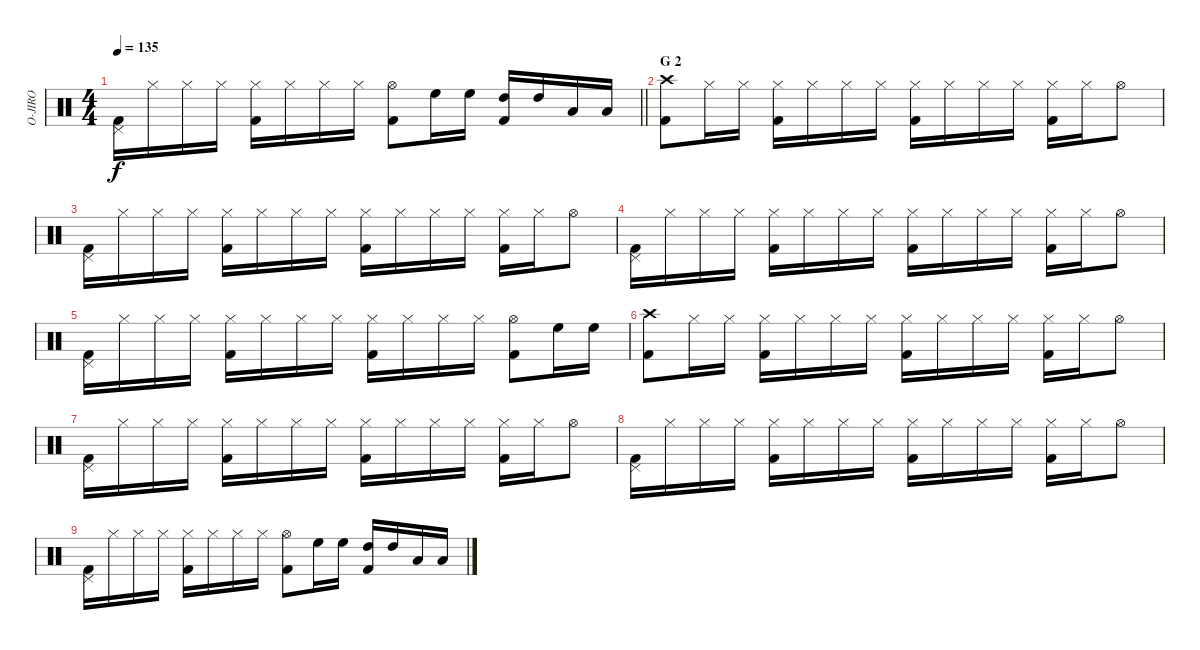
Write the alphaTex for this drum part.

\track ("O-JIRO" "O-JIRO") {instrument percussion}
\staff {score}
\articulation defaults
\ts (4 4)
\tempo 135
\clef neutral
\barLineRight lightlight
\ks c
("Pedal Hi-Hat (hit)" "Kick (hit) 2").16{dy f} "Hi-Hat (closed)".16 "Hi-Hat (closed)".16 "Hi-Hat (closed)".16 ("Hi-Hat (closed)" "Kick (hit) 2").16 "Hi-Hat (closed)".16 "Hi-Hat (closed)".16 "Hi-Hat (closed)".16 ("Hi-Hat (open)" "Kick (hit) 2").8 "High Floor Tom (hit)".16 "High Floor Tom (hit)".16 ("High Tom (hit)" "Kick (hit) 2").16 "High Tom (hit)".16 "Low Tom (hit)".16 "Low Tom (hit)".16 |
\section ("" "G 2")
("Crash high (hit)" "Kick (hit) 2").8 "Hi-Hat (closed)".16 "Hi-Hat (closed)".16 ("Hi-Hat (closed)" "Kick (hit) 2").16 "Hi-Hat (closed)".16 "Hi-Hat (closed)".16 "Hi-Hat (closed)".16 ("Hi-Hat (closed)" "Kick (hit) 2").16 "Hi-Hat (closed)".16 "Hi-Hat (closed)".16 "Hi-Hat (closed)".16 ("Hi-Hat (closed)" "Kick (hit) 2").16 "Hi-Hat (closed)".16 "Hi-Hat (open)".8 |
("Pedal Hi-Hat (hit)" "Kick (hit) 2").16 "Hi-Hat (closed)".16 "Hi-Hat (closed)".16 "Hi-Hat (closed)".16 ("Hi-Hat (closed)" "Kick (hit) 2").16 "Hi-Hat (closed)".16 "Hi-Hat (closed)".16 "Hi-Hat (closed)".16 ("Hi-Hat (closed)" "Kick (hit) 2").16 "Hi-Hat (closed)".16 "Hi-Hat (closed)".16 "Hi-Hat (closed)".16 ("Hi-Hat (closed)" "Kick (hit) 2").16 "Hi-Hat (closed)".16 "Hi-Hat (open)".8 |
("Pedal Hi-Hat (hit)" "Kick (hit) 2").16 "Hi-Hat (closed)".16 "Hi-Hat (closed)".16 "Hi-Hat (closed)".16 ("Hi-Hat (closed)" "Kick (hit) 2").16 "Hi-Hat (closed)".16 "Hi-Hat (closed)".16 "Hi-Hat (closed)".16 ("Hi-Hat (closed)" "Kick (hit) 2").16 "Hi-Hat (closed)".16 "Hi-Hat (closed)".16 "Hi-Hat (closed)".16 ("Hi-Hat (closed)" "Kick (hit) 2").16 "Hi-Hat (closed)".16 "Hi-Hat (open)".8 |
("Pedal Hi-Hat (hit)" "Kick (hit) 2").16 "Hi-Hat (closed)".16 "Hi-Hat (closed)".16 "Hi-Hat (closed)".16 ("Hi-Hat (closed)" "Kick (hit) 2").16 "Hi-Hat (closed)".16 "Hi-Hat (closed)".16 "Hi-Hat (closed)".16 ("Hi-Hat (closed)" "Kick (hit) 2").16 "Hi-Hat (closed)".16 "Hi-Hat (closed)".16 "Hi-Hat (closed)".16 ("Hi-Hat (open)" "Kick (hit) 2").8 "High Floor Tom (hit)".16 "High Floor Tom (hit)".16 |
("Crash high (hit)" "Kick (hit) 2").8 "Hi-Hat (closed)".16 "Hi-Hat (closed)".16 ("Hi-Hat (closed)" "Kick (hit) 2").16 "Hi-Hat (closed)".16 "Hi-Hat (closed)".16 "Hi-Hat (closed)".16 ("Hi-Hat (closed)" "Kick (hit) 2").16 "Hi-Hat (closed)".16 "Hi-Hat (closed)".16 "Hi-Hat (closed)".16 ("Hi-Hat (closed)" "Kick (hit) 2").16 "Hi-Hat (closed)".16 "Hi-Hat (open)".8 |
("Pedal Hi-Hat (hit)" "Kick (hit) 2").16 "Hi-Hat (closed)".16 "Hi-Hat (closed)".16 "Hi-Hat (closed)".16 ("Hi-Hat (closed)" "Kick (hit) 2").16 "Hi-Hat (closed)".16 "Hi-Hat (closed)".16 "Hi-Hat (closed)".16 ("Hi-Hat (closed)" "Kick (hit) 2").16 "Hi-Hat (closed)".16 "Hi-Hat (closed)".16 "Hi-Hat (closed)".16 ("Hi-Hat (closed)" "Kick (hit) 2").16 "Hi-Hat (closed)".16 "Hi-Hat (open)".8 |
("Pedal Hi-Hat (hit)" "Kick (hit) 2").16 "Hi-Hat (closed)".16 "Hi-Hat (closed)".16 "Hi-Hat (closed)".16 ("Hi-Hat (closed)" "Kick (hit) 2").16 "Hi-Hat (closed)".16 "Hi-Hat (closed)".16 "Hi-Hat (closed)".16 ("Hi-Hat (closed)" "Kick (hit) 2").16 "Hi-Hat (closed)".16 "Hi-Hat (closed)".16 "Hi-Hat (closed)".16 ("Hi-Hat (closed)" "Kick (hit) 2").16 "Hi-Hat (closed)".16 "Hi-Hat (open)".8 |
("Pedal Hi-Hat (hit)" "Kick (hit) 2").16 "Hi-Hat (closed)".16 "Hi-Hat (closed)".16 "Hi-Hat (closed)".16 ("Hi-Hat (closed)" "Kick (hit) 2").16 "Hi-Hat (closed)".16 "Hi-Hat (closed)".16 "Hi-Hat (closed)".16 ("Hi-Hat (open)" "Kick (hit) 2").8 "High Floor Tom (hit)".16 "High Floor Tom (hit)".16 ("High Tom (hit)" "Kick (hit) 2").16 "High Tom (hit)".16 "Low Tom (hit)".16 "Low Tom (hit)".16
